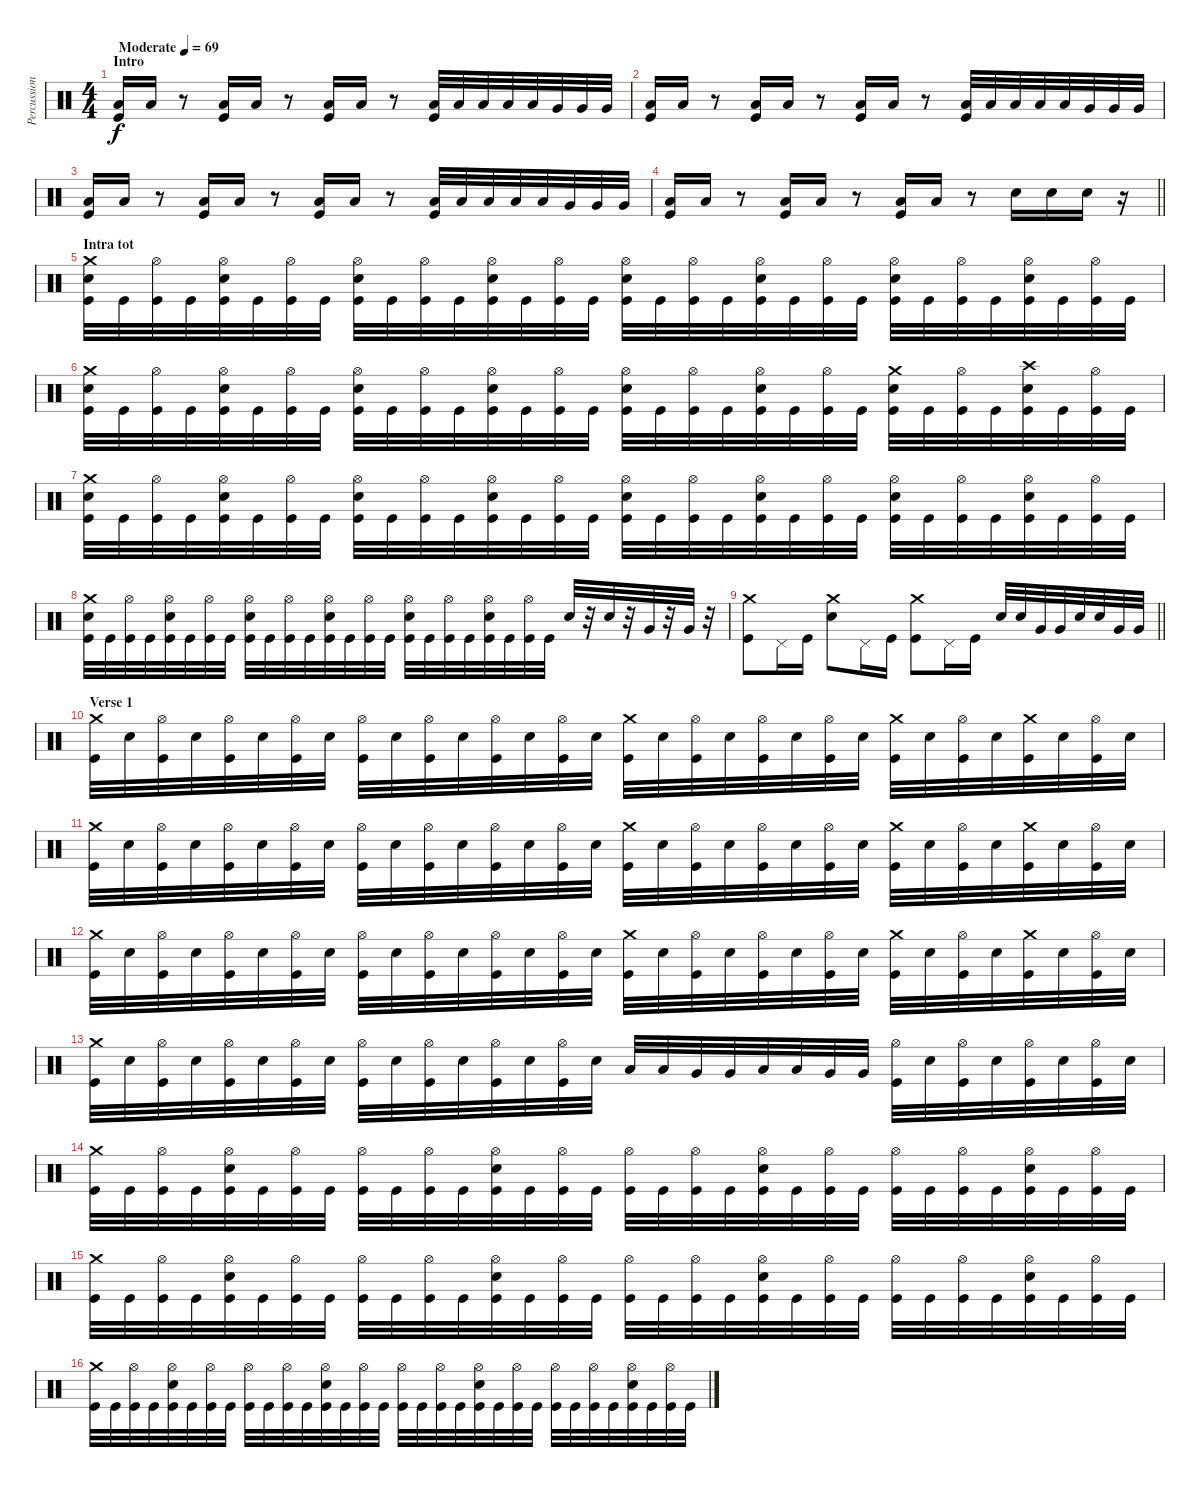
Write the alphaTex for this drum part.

\track ("Percussion" "Percussion") {instrument percussion}
\staff {score}
\articulation defaults
\ts (4 4)
\section ("" "Intro")
\tempo (69 "Moderate")
\clef neutral
\ks c
("Low Tom (hit)" "Kick (hit)").16{dy f} "Low Tom (hit)".16 r.8 ("Low Tom (hit)" "Kick (hit)").16 "Low Tom (hit)".16 r.8 ("Low Tom (hit)" "Kick (hit)").16 "Low Tom (hit)".16 r.8 ("Low Tom (hit)" "Kick (hit)").32 "Low Tom (hit)".32 "Low Tom (hit)".32 "Low Tom (hit)".32 "Low Tom (hit)".32 "Very Low Tom (hit)".32 "Very Low Tom (hit)".32 "Very Low Tom (hit)".32 |
("Low Tom (hit)" "Kick (hit)").16 "Low Tom (hit)".16 r.8 ("Low Tom (hit)" "Kick (hit)").16 "Low Tom (hit)".16 r.8 ("Low Tom (hit)" "Kick (hit)").16 "Low Tom (hit)".16 r.8 ("Low Tom (hit)" "Kick (hit)").32 "Low Tom (hit)".32 "Low Tom (hit)".32 "Low Tom (hit)".32 "Low Tom (hit)".32 "Very Low Tom (hit)".32 "Very Low Tom (hit)".32 "Very Low Tom (hit)".32 |
("Low Tom (hit)" "Kick (hit)").16 "Low Tom (hit)".16 r.8 ("Low Tom (hit)" "Kick (hit)").16 "Low Tom (hit)".16 r.8 ("Low Tom (hit)" "Kick (hit)").16 "Low Tom (hit)".16 r.8 ("Low Tom (hit)" "Kick (hit)").32 "Low Tom (hit)".32 "Low Tom (hit)".32 "Low Tom (hit)".32 "Low Tom (hit)".32 "Very Low Tom (hit)".32 "Very Low Tom (hit)".32 "Very Low Tom (hit)".32 |
\barLineRight lightlight
("Low Tom (hit)" "Kick (hit)").16 "Low Tom (hit)".16 r.8 ("Low Tom (hit)" "Kick (hit)").16 "Low Tom (hit)".16 r.8 ("Low Tom (hit)" "Kick (hit)").16 "Low Tom (hit)".16 r.8 "Electric Snare (hit)".16 "Electric Snare (hit)".16 "Electric Snare (hit)".16 r.16 |
\section ("" "Intra tot")
("Crash medium (hit)" "Electric Snare (hit)" "Kick (hit)").32 "Kick (hit)".32 ("Hi-Hat (open)" "Kick (hit)").32 "Kick (hit)".32 ("Hi-Hat (open)" "Electric Snare (hit)" "Kick (hit)").32 "Kick (hit)".32 ("Hi-Hat (open)" "Kick (hit)").32 "Kick (hit)".32 ("Hi-Hat (open)" "Electric Snare (hit)" "Kick (hit)").32 "Kick (hit)".32 ("Hi-Hat (open)" "Kick (hit)").32 "Kick (hit)".32 ("Hi-Hat (open)" "Electric Snare (hit)" "Kick (hit)").32 "Kick (hit)".32 ("Hi-Hat (open)" "Kick (hit)").32 "Kick (hit)".32 ("Hi-Hat (open)" "Electric Snare (hit)" "Kick (hit)").32 "Kick (hit)".32 ("Hi-Hat (open)" "Kick (hit)").32 "Kick (hit)".32 ("Hi-Hat (open)" "Electric Snare (hit)" "Kick (hit)").32 "Kick (hit)".32 ("Hi-Hat (open)" "Kick (hit)").32 "Kick (hit)".32 ("Hi-Hat (open)" "Electric Snare (hit)" "Kick (hit)").32 "Kick (hit)".32 ("Hi-Hat (open)" "Kick (hit)").32 "Kick (hit)".32 ("Hi-Hat (open)" "Electric Snare (hit)" "Kick (hit)").32 "Kick (hit)".32 ("Hi-Hat (open)" "Kick (hit)").32 "Kick (hit)".32 |
("Crash medium (hit)" "Electric Snare (hit)" "Kick (hit)").32 "Kick (hit)".32 ("Hi-Hat (open)" "Kick (hit)").32 "Kick (hit)".32 ("Hi-Hat (open)" "Electric Snare (hit)" "Kick (hit)").32 "Kick (hit)".32 ("Hi-Hat (open)" "Kick (hit)").32 "Kick (hit)".32 ("Hi-Hat (open)" "Electric Snare (hit)" "Kick (hit)").32 "Kick (hit)".32 ("Hi-Hat (open)" "Kick (hit)").32 "Kick (hit)".32 ("Hi-Hat (open)" "Electric Snare (hit)" "Kick (hit)").32 "Kick (hit)".32 ("Hi-Hat (open)" "Kick (hit)").32 "Kick (hit)".32 ("Hi-Hat (open)" "Electric Snare (hit)" "Kick (hit)").32 "Kick (hit)".32 ("Hi-Hat (open)" "Kick (hit)").32 "Kick (hit)".32 ("Hi-Hat (open)" "Electric Snare (hit)" "Kick (hit)").32 "Kick (hit)".32 ("Hi-Hat (open)" "Kick (hit)").32 "Kick (hit)".32 ("Crash medium (hit)" "Electric Snare (hit)" "Kick (hit)").32 "Kick (hit)".32 ("Hi-Hat (open)" "Kick (hit)").32 "Kick (hit)".32 ("Crash high (hit)" "Electric Snare (hit)" "Kick (hit)").32 "Kick (hit)".32 ("Hi-Hat (open)" "Kick (hit)").32 "Kick (hit)".32 |
("Crash medium (hit)" "Electric Snare (hit)" "Kick (hit)").32 "Kick (hit)".32 ("Hi-Hat (open)" "Kick (hit)").32 "Kick (hit)".32 ("Hi-Hat (open)" "Electric Snare (hit)" "Kick (hit)").32 "Kick (hit)".32 ("Hi-Hat (open)" "Kick (hit)").32 "Kick (hit)".32 ("Hi-Hat (open)" "Electric Snare (hit)" "Kick (hit)").32 "Kick (hit)".32 ("Hi-Hat (open)" "Kick (hit)").32 "Kick (hit)".32 ("Hi-Hat (open)" "Electric Snare (hit)" "Kick (hit)").32 "Kick (hit)".32 ("Hi-Hat (open)" "Kick (hit)").32 "Kick (hit)".32 ("Hi-Hat (open)" "Electric Snare (hit)" "Kick (hit)").32 "Kick (hit)".32 ("Hi-Hat (open)" "Kick (hit)").32 "Kick (hit)".32 ("Hi-Hat (open)" "Electric Snare (hit)" "Kick (hit)").32 "Kick (hit)".32 ("Hi-Hat (open)" "Kick (hit)").32 "Kick (hit)".32 ("Hi-Hat (open)" "Electric Snare (hit)" "Kick (hit)").32 "Kick (hit)".32 ("Hi-Hat (open)" "Kick (hit)").32 "Kick (hit)".32 ("Hi-Hat (open)" "Electric Snare (hit)" "Kick (hit)").32 "Kick (hit)".32 ("Hi-Hat (open)" "Kick (hit)").32 "Kick (hit)".32 |
("Crash medium (hit)" "Electric Snare (hit)" "Kick (hit)").32 "Kick (hit)".32 ("Hi-Hat (open)" "Kick (hit)").32 "Kick (hit)".32 ("Hi-Hat (open)" "Electric Snare (hit)" "Kick (hit)").32 "Kick (hit)".32 ("Hi-Hat (open)" "Kick (hit)").32 "Kick (hit)".32 ("Hi-Hat (open)" "Electric Snare (hit)" "Kick (hit)").32 "Kick (hit)".32 ("Hi-Hat (open)" "Kick (hit)").32 "Kick (hit)".32 ("Hi-Hat (open)" "Electric Snare (hit)" "Kick (hit)").32 "Kick (hit)".32 ("Hi-Hat (open)" "Kick (hit)").32 "Kick (hit)".32 ("Hi-Hat (open)" "Electric Snare (hit)" "Kick (hit)").32 "Kick (hit)".32 ("Hi-Hat (open)" "Kick (hit)").32 "Kick (hit)".32 ("Hi-Hat (open)" "Electric Snare (hit)" "Kick (hit)").32 "Kick (hit)".32 ("Hi-Hat (open)" "Kick (hit)").32 "Kick (hit)".32 "Electric Snare (hit)".32 r.32 "Electric Snare (hit)".32 r.32 "Very Low Tom (hit)".32 r.32 "Very Low Tom (hit)".32 r.32 |
\barLineRight lightlight
("Crash medium (hit)" "Kick (hit)").8 "Pedal Hi-Hat (hit)".16 "Kick (hit)".16 ("Crash medium (hit)" "Electric Snare (hit)").8 "Pedal Hi-Hat (hit)".16 "Kick (hit)".16 ("Crash medium (hit)" "Kick (hit)").8 "Pedal Hi-Hat (hit)".16 "Kick (hit)".16 "Electric Snare (hit)".32 "Electric Snare (hit)".32 "Very Low Tom (hit)".32 "Very Low Tom (hit)".32 "Electric Snare (hit)".32 "Electric Snare (hit)".32 "Very Low Tom (hit)".32 "Very Low Tom (hit)".32 |
\section ("" "Verse 1")
("Crash medium (hit)" "Kick (hit)").32 "Electric Snare (hit)".32 ("Hi-Hat (open)" "Kick (hit)").32 "Electric Snare (hit)".32 ("Hi-Hat (open)" "Kick (hit)").32 "Electric Snare (hit)".32 ("Hi-Hat (open)" "Kick (hit)").32 "Electric Snare (hit)".32 ("Hi-Hat (open)" "Kick (hit)").32 "Electric Snare (hit)".32 ("Hi-Hat (open)" "Kick (hit)").32 "Electric Snare (hit)".32 ("Hi-Hat (open)" "Kick (hit)").32 "Electric Snare (hit)".32 ("Hi-Hat (open)" "Kick (hit)").32 "Electric Snare (hit)".32 ("Crash medium (hit)" "Kick (hit)").32 "Electric Snare (hit)".32 ("Hi-Hat (open)" "Kick (hit)").32 "Electric Snare (hit)".32 ("Hi-Hat (open)" "Kick (hit)").32 "Electric Snare (hit)".32 ("Hi-Hat (open)" "Kick (hit)").32 "Electric Snare (hit)".32 ("Crash medium (hit)" "Kick (hit)").32 "Electric Snare (hit)".32 ("Hi-Hat (open)" "Kick (hit)").32 "Electric Snare (hit)".32 ("Crash medium (hit)" "Kick (hit)").32 "Electric Snare (hit)".32 ("Hi-Hat (open)" "Kick (hit)").32 "Electric Snare (hit)".32 |
("Crash medium (hit)" "Kick (hit)").32 "Electric Snare (hit)".32 ("Hi-Hat (open)" "Kick (hit)").32 "Electric Snare (hit)".32 ("Hi-Hat (open)" "Kick (hit)").32 "Electric Snare (hit)".32 ("Hi-Hat (open)" "Kick (hit)").32 "Electric Snare (hit)".32 ("Hi-Hat (open)" "Kick (hit)").32 "Electric Snare (hit)".32 ("Hi-Hat (open)" "Kick (hit)").32 "Electric Snare (hit)".32 ("Hi-Hat (open)" "Kick (hit)").32 "Electric Snare (hit)".32 ("Hi-Hat (open)" "Kick (hit)").32 "Electric Snare (hit)".32 ("Crash medium (hit)" "Kick (hit)").32 "Electric Snare (hit)".32 ("Hi-Hat (open)" "Kick (hit)").32 "Electric Snare (hit)".32 ("Hi-Hat (open)" "Kick (hit)").32 "Electric Snare (hit)".32 ("Hi-Hat (open)" "Kick (hit)").32 "Electric Snare (hit)".32 ("Crash medium (hit)" "Kick (hit)").32 "Electric Snare (hit)".32 ("Hi-Hat (open)" "Kick (hit)").32 "Electric Snare (hit)".32 ("Crash medium (hit)" "Kick (hit)").32 "Electric Snare (hit)".32 ("Hi-Hat (open)" "Kick (hit)").32 "Electric Snare (hit)".32 |
("Crash medium (hit)" "Kick (hit)").32 "Electric Snare (hit)".32 ("Hi-Hat (open)" "Kick (hit)").32 "Electric Snare (hit)".32 ("Hi-Hat (open)" "Kick (hit)").32 "Electric Snare (hit)".32 ("Hi-Hat (open)" "Kick (hit)").32 "Electric Snare (hit)".32 ("Hi-Hat (open)" "Kick (hit)").32 "Electric Snare (hit)".32 ("Hi-Hat (open)" "Kick (hit)").32 "Electric Snare (hit)".32 ("Hi-Hat (open)" "Kick (hit)").32 "Electric Snare (hit)".32 ("Hi-Hat (open)" "Kick (hit)").32 "Electric Snare (hit)".32 ("Crash medium (hit)" "Kick (hit)").32 "Electric Snare (hit)".32 ("Hi-Hat (open)" "Kick (hit)").32 "Electric Snare (hit)".32 ("Hi-Hat (open)" "Kick (hit)").32 "Electric Snare (hit)".32 ("Hi-Hat (open)" "Kick (hit)").32 "Electric Snare (hit)".32 ("Crash medium (hit)" "Kick (hit)").32 "Electric Snare (hit)".32 ("Hi-Hat (open)" "Kick (hit)").32 "Electric Snare (hit)".32 ("Crash medium (hit)" "Kick (hit)").32 "Electric Snare (hit)".32 ("Hi-Hat (open)" "Kick (hit)").32 "Electric Snare (hit)".32 |
("Crash medium (hit)" "Kick (hit)").32 "Electric Snare (hit)".32 ("Hi-Hat (open)" "Kick (hit)").32 "Electric Snare (hit)".32 ("Hi-Hat (open)" "Kick (hit)").32 "Electric Snare (hit)".32 ("Hi-Hat (open)" "Kick (hit)").32 "Electric Snare (hit)".32 ("Hi-Hat (open)" "Kick (hit)").32 "Electric Snare (hit)".32 ("Hi-Hat (open)" "Kick (hit)").32 "Electric Snare (hit)".32 ("Hi-Hat (open)" "Kick (hit)").32 "Electric Snare (hit)".32 ("Hi-Hat (open)" "Kick (hit)").32 "Electric Snare (hit)".32 "Low Tom (hit)".32 "Low Tom (hit)".32 "Very Low Tom (hit)".32 "Very Low Tom (hit)".32 "Low Tom (hit)".32 "Low Tom (hit)".32 "Very Low Tom (hit)".32 "Very Low Tom (hit)".32 ("Hi-Hat (open)" "Kick (hit)").32 "Electric Snare (hit)".32 ("Hi-Hat (open)" "Kick (hit)").32 "Electric Snare (hit)".32 ("Hi-Hat (open)" "Kick (hit)").32 "Electric Snare (hit)".32 ("Hi-Hat (open)" "Kick (hit)").32 "Electric Snare (hit)".32 |
("Crash medium (hit)" "Kick (hit)").32 "Kick (hit)".32 ("Hi-Hat (open)" "Kick (hit)").32 "Kick (hit)".32 ("Hi-Hat (open)" "Electric Snare (hit)" "Kick (hit)").32 "Kick (hit)".32 ("Hi-Hat (open)" "Kick (hit)").32 "Kick (hit)".32 ("Hi-Hat (open)" "Kick (hit)").32 "Kick (hit)".32 ("Hi-Hat (open)" "Kick (hit)").32 "Kick (hit)".32 ("Hi-Hat (open)" "Electric Snare (hit)" "Kick (hit)").32 "Kick (hit)".32 ("Hi-Hat (open)" "Kick (hit)").32 "Kick (hit)".32 ("Hi-Hat (open)" "Kick (hit)").32 "Kick (hit)".32 ("Hi-Hat (open)" "Kick (hit)").32 "Kick (hit)".32 ("Hi-Hat (open)" "Electric Snare (hit)" "Kick (hit)").32 "Kick (hit)".32 ("Hi-Hat (open)" "Kick (hit)").32 "Kick (hit)".32 ("Hi-Hat (open)" "Kick (hit)").32 "Kick (hit)".32 ("Hi-Hat (open)" "Kick (hit)").32 "Kick (hit)".32 ("Hi-Hat (open)" "Electric Snare (hit)" "Kick (hit)").32 "Kick (hit)".32 ("Hi-Hat (open)" "Kick (hit)").32 "Kick (hit)".32 |
("Crash medium (hit)" "Kick (hit)").32 "Kick (hit)".32 ("Hi-Hat (open)" "Kick (hit)").32 "Kick (hit)".32 ("Hi-Hat (open)" "Electric Snare (hit)" "Kick (hit)").32 "Kick (hit)".32 ("Hi-Hat (open)" "Kick (hit)").32 "Kick (hit)".32 ("Hi-Hat (open)" "Kick (hit)").32 "Kick (hit)".32 ("Hi-Hat (open)" "Kick (hit)").32 "Kick (hit)".32 ("Hi-Hat (open)" "Electric Snare (hit)" "Kick (hit)").32 "Kick (hit)".32 ("Hi-Hat (open)" "Kick (hit)").32 "Kick (hit)".32 ("Hi-Hat (open)" "Kick (hit)").32 "Kick (hit)".32 ("Hi-Hat (open)" "Kick (hit)").32 "Kick (hit)".32 ("Hi-Hat (open)" "Electric Snare (hit)" "Kick (hit)").32 "Kick (hit)".32 ("Hi-Hat (open)" "Kick (hit)").32 "Kick (hit)".32 ("Hi-Hat (open)" "Kick (hit)").32 "Kick (hit)".32 ("Hi-Hat (open)" "Kick (hit)").32 "Kick (hit)".32 ("Hi-Hat (open)" "Electric Snare (hit)" "Kick (hit)").32 "Kick (hit)".32 ("Hi-Hat (open)" "Kick (hit)").32 "Kick (hit)".32 |
("Crash medium (hit)" "Kick (hit)").32 "Kick (hit)".32 ("Hi-Hat (open)" "Kick (hit)").32 "Kick (hit)".32 ("Hi-Hat (open)" "Electric Snare (hit)" "Kick (hit)").32 "Kick (hit)".32 ("Hi-Hat (open)" "Kick (hit)").32 "Kick (hit)".32 ("Hi-Hat (open)" "Kick (hit)").32 "Kick (hit)".32 ("Hi-Hat (open)" "Kick (hit)").32 "Kick (hit)".32 ("Hi-Hat (open)" "Electric Snare (hit)" "Kick (hit)").32 "Kick (hit)".32 ("Hi-Hat (open)" "Kick (hit)").32 "Kick (hit)".32 ("Hi-Hat (open)" "Kick (hit)").32 "Kick (hit)".32 ("Hi-Hat (open)" "Kick (hit)").32 "Kick (hit)".32 ("Hi-Hat (open)" "Electric Snare (hit)" "Kick (hit)").32 "Kick (hit)".32 ("Hi-Hat (open)" "Kick (hit)").32 "Kick (hit)".32 ("Hi-Hat (open)" "Kick (hit)").32 "Kick (hit)".32 ("Hi-Hat (open)" "Kick (hit)").32 "Kick (hit)".32 ("Hi-Hat (open)" "Electric Snare (hit)" "Kick (hit)").32 "Kick (hit)".32 ("Hi-Hat (open)" "Kick (hit)").32 "Kick (hit)".32
